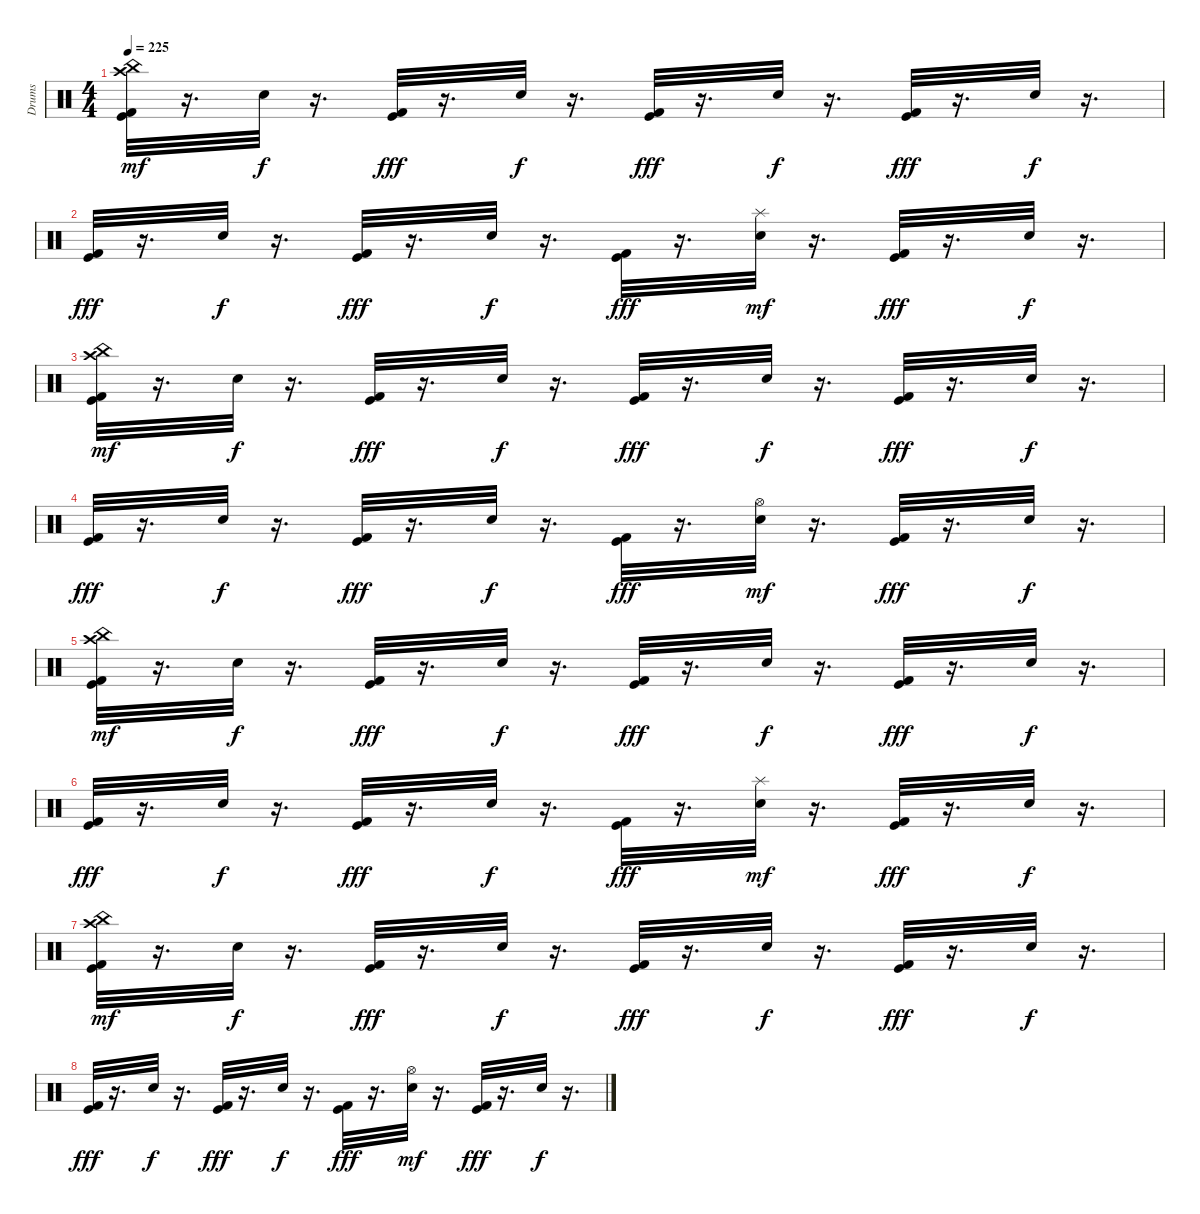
\track ("Drums" "Drums") {instrument percussion}
\staff {score}
\articulation defaults
\ts (4 4)
\tempo 225
\clef neutral
\ks c
("Kick (hit) 2" "Kick (hit)" "Crash high (hit)" "China (hit)").32{dy mf} r.16{d} "Snare (hit) 2".32{dy f} r.16{d} ("Kick (hit) 2" "Kick (hit)").32{dy fff} r.16{d} "Snare (hit) 2".32{dy f} r.16{d} ("Kick (hit) 2" "Kick (hit)").32{dy fff} r.16{d} "Snare (hit) 2".32{dy f} r.16{d} ("Kick (hit) 2" "Kick (hit)").32{dy fff} r.16{d} "Snare (hit) 2".32{dy f} r.16{d} |
("Kick (hit) 2" "Kick (hit)").32{dy fff} r.16{d} "Snare (hit) 2".32{dy f} r.16{d} ("Kick (hit) 2" "Kick (hit)").32{dy fff} r.16{d} "Snare (hit) 2".32{dy f} r.16{d} ("Kick (hit) 2" "Kick (hit)").32{dy fff} r.16{d} ("Snare (hit) 2" "Splash (hit)").32{dy mf} r.16{d} ("Kick (hit) 2" "Kick (hit)").32{dy fff} r.16{d} "Snare (hit) 2".32{dy f} r.16{d} |
("Kick (hit) 2" "Kick (hit)" "Crash high (hit)" "China (hit)").32{dy mf} r.16{d} "Snare (hit) 2".32{dy f} r.16{d} ("Kick (hit) 2" "Kick (hit)").32{dy fff} r.16{d} "Snare (hit) 2".32{dy f} r.16{d} ("Kick (hit) 2" "Kick (hit)").32{dy fff} r.16{d} "Snare (hit) 2".32{dy f} r.16{d} ("Kick (hit) 2" "Kick (hit)").32{dy fff} r.16{d} "Snare (hit) 2".32{dy f} r.16{d} |
("Kick (hit) 2" "Kick (hit)").32{dy fff} r.16{d} "Snare (hit) 2".32{dy f} r.16{d} ("Kick (hit) 2" "Kick (hit)").32{dy fff} r.16{d} "Snare (hit) 2".32{dy f} r.16{d} ("Kick (hit) 2" "Kick (hit)").32{dy fff} r.16{d} ("Snare (hit) 2" "Hi-Hat (open)").32{dy mf} r.16{d} ("Kick (hit) 2" "Kick (hit)").32{dy fff} r.16{d} "Snare (hit) 2".32{dy f} r.16{d} |
("Kick (hit) 2" "Kick (hit)" "Crash high (hit)" "China (hit)").32{dy mf} r.16{d} "Snare (hit) 2".32{dy f} r.16{d} ("Kick (hit) 2" "Kick (hit)").32{dy fff} r.16{d} "Snare (hit) 2".32{dy f} r.16{d} ("Kick (hit) 2" "Kick (hit)").32{dy fff} r.16{d} "Snare (hit) 2".32{dy f} r.16{d} ("Kick (hit) 2" "Kick (hit)").32{dy fff} r.16{d} "Snare (hit) 2".32{dy f} r.16{d} |
("Kick (hit) 2" "Kick (hit)").32{dy fff} r.16{d} "Snare (hit) 2".32{dy f} r.16{d} ("Kick (hit) 2" "Kick (hit)").32{dy fff} r.16{d} "Snare (hit) 2".32{dy f} r.16{d} ("Kick (hit) 2" "Kick (hit)").32{dy fff} r.16{d} ("Snare (hit) 2" "Splash (hit)").32{dy mf} r.16{d} ("Kick (hit) 2" "Kick (hit)").32{dy fff} r.16{d} "Snare (hit) 2".32{dy f} r.16{d} |
("Kick (hit) 2" "Kick (hit)" "Crash high (hit)" "China (hit)").32{dy mf} r.16{d} "Snare (hit) 2".32{dy f} r.16{d} ("Kick (hit) 2" "Kick (hit)").32{dy fff} r.16{d} "Snare (hit) 2".32{dy f} r.16{d} ("Kick (hit) 2" "Kick (hit)").32{dy fff} r.16{d} "Snare (hit) 2".32{dy f} r.16{d} ("Kick (hit) 2" "Kick (hit)").32{dy fff} r.16{d} "Snare (hit) 2".32{dy f} r.16{d} |
("Kick (hit) 2" "Kick (hit)").32{dy fff} r.16{d} "Snare (hit) 2".32{dy f} r.16{d} ("Kick (hit) 2" "Kick (hit)").32{dy fff} r.16{d} "Snare (hit) 2".32{dy f} r.16{d} ("Kick (hit) 2" "Kick (hit)").32{dy fff} r.16{d} ("Snare (hit) 2" "Hi-Hat (open)").32{dy mf} r.16{d} ("Kick (hit) 2" "Kick (hit)").32{dy fff} r.16{d} "Snare (hit) 2".32{dy f} r.16{d}
